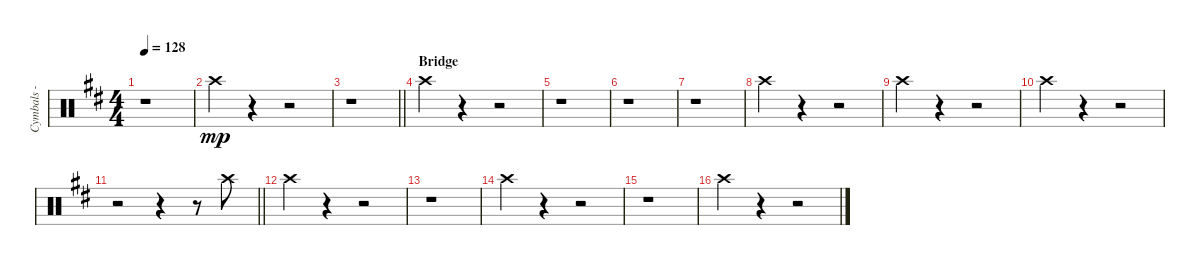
\track ("Cymbals - crash" "Cymbals - ") {instrument percussion}
\staff {score}
\articulation defaults
\ts (4 4)
\tempo 128
\clef neutral
\ks bminor
r.1{dy mp} |
"Crash high (hit)".4 r.4 r.2 |
\barLineRight lightlight
r.1 |
\section ("" "Bridge")
"Crash high (hit)".4 r.4 r.2 |
r.1 |
r.1 |
r.1 |
"Crash high (hit)".4 r.4 r.2 |
"Crash high (hit)".4 r.4 r.2 |
"Crash high (hit)".4 r.4 r.2 |
\barLineRight lightlight
r.2 r.4 r.8 "Crash high (hit)".8 |
"Crash high (hit)".4 r.4 r.2 |
r.1 |
"Crash high (hit)".4 r.4 r.2 |
r.1 |
"Crash high (hit)".4 r.4 r.2
